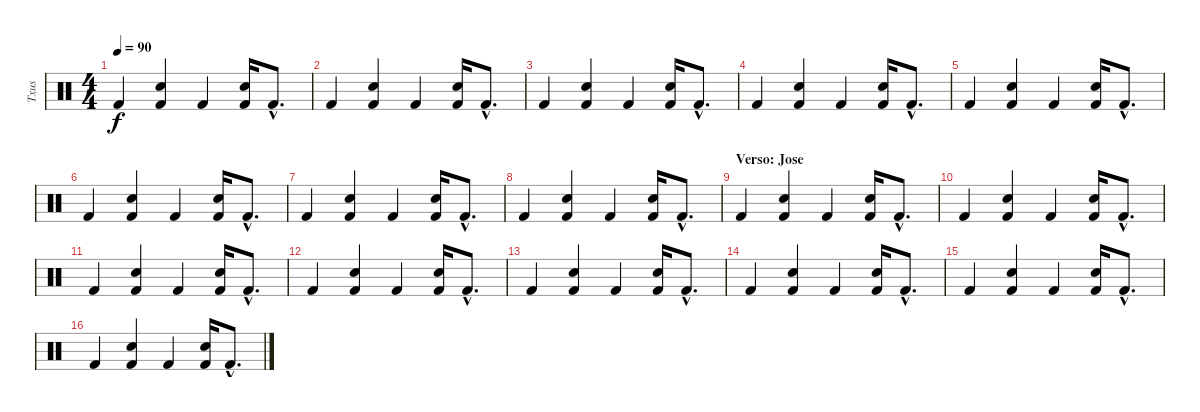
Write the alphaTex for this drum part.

\track ("Txus" "Txus") {instrument percussion}
\staff {score}
\articulation defaults
\ts (4 4)
\tempo 90
\clef neutral
\ks c "Kick (hit) 2".4{dy f}
("Kick (hit) 2" "Electric Snare (hit)").4 "Kick (hit) 2".4 ("Kick (hit) 2" "Electric Snare (hit)").16 "Kick (hit) 2"{hac}.8{d} |
"Kick (hit) 2".4 ("Kick (hit) 2" "Electric Snare (hit)").4 "Kick (hit) 2".4 ("Kick (hit) 2" "Electric Snare (hit)").16 "Kick (hit) 2"{hac}.8{d} |
"Kick (hit) 2".4 ("Kick (hit) 2" "Electric Snare (hit)").4 "Kick (hit) 2".4 ("Kick (hit) 2" "Electric Snare (hit)").16 "Kick (hit) 2"{hac}.8{d} |
"Kick (hit) 2".4 ("Kick (hit) 2" "Electric Snare (hit)").4 "Kick (hit) 2".4 ("Kick (hit) 2" "Electric Snare (hit)").16 "Kick (hit) 2"{hac}.8{d} |
"Kick (hit) 2".4 ("Kick (hit) 2" "Electric Snare (hit)").4 "Kick (hit) 2".4 ("Kick (hit) 2" "Electric Snare (hit)").16 "Kick (hit) 2"{hac}.8{d} |
"Kick (hit) 2".4 ("Kick (hit) 2" "Electric Snare (hit)").4 "Kick (hit) 2".4 ("Kick (hit) 2" "Electric Snare (hit)").16 "Kick (hit) 2"{hac}.8{d} |
"Kick (hit) 2".4 ("Kick (hit) 2" "Electric Snare (hit)").4 "Kick (hit) 2".4 ("Kick (hit) 2" "Electric Snare (hit)").16 "Kick (hit) 2"{hac}.8{d} |
"Kick (hit) 2".4 ("Kick (hit) 2" "Electric Snare (hit)").4 "Kick (hit) 2".4 ("Kick (hit) 2" "Electric Snare (hit)").16 "Kick (hit) 2"{hac}.8{d} |
\section ("" "Verso: Jose")
"Kick (hit) 2".4 ("Kick (hit) 2" "Electric Snare (hit)").4 "Kick (hit) 2".4 ("Kick (hit) 2" "Electric Snare (hit)").16 "Kick (hit) 2"{hac}.8{d} |
"Kick (hit) 2".4 ("Kick (hit) 2" "Electric Snare (hit)").4 "Kick (hit) 2".4 ("Kick (hit) 2" "Electric Snare (hit)").16 "Kick (hit) 2"{hac}.8{d} |
"Kick (hit) 2".4 ("Kick (hit) 2" "Electric Snare (hit)").4 "Kick (hit) 2".4 ("Kick (hit) 2" "Electric Snare (hit)").16 "Kick (hit) 2"{hac}.8{d} |
"Kick (hit) 2".4 ("Kick (hit) 2" "Electric Snare (hit)").4 "Kick (hit) 2".4 ("Kick (hit) 2" "Electric Snare (hit)").16 "Kick (hit) 2"{hac}.8{d} |
"Kick (hit) 2".4 ("Kick (hit) 2" "Electric Snare (hit)").4 "Kick (hit) 2".4 ("Kick (hit) 2" "Electric Snare (hit)").16 "Kick (hit) 2"{hac}.8{d} |
"Kick (hit) 2".4 ("Kick (hit) 2" "Electric Snare (hit)").4 "Kick (hit) 2".4 ("Kick (hit) 2" "Electric Snare (hit)").16 "Kick (hit) 2"{hac}.8{d} |
"Kick (hit) 2".4 ("Kick (hit) 2" "Electric Snare (hit)").4 "Kick (hit) 2".4 ("Kick (hit) 2" "Electric Snare (hit)").16 "Kick (hit) 2"{hac}.8{d} |
"Kick (hit) 2".4 ("Kick (hit) 2" "Electric Snare (hit)").4 "Kick (hit) 2".4 ("Kick (hit) 2" "Electric Snare (hit)").16 "Kick (hit) 2"{hac}.8{d}
